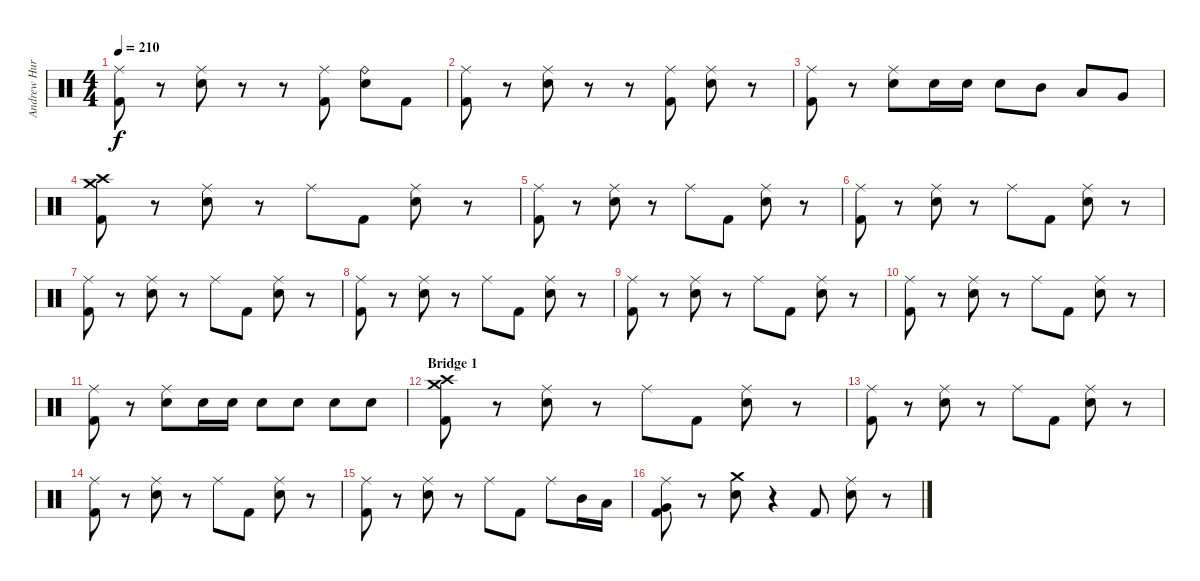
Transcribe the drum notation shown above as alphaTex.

\track ("Andrew Hurley (Drums)" "Andrew Hur") {instrument percussion}
\staff {score}
\articulation defaults
\ts (4 4)
\tempo 210
\clef neutral
\ks c
("Ride (middle)" "Kick (hit) 2").8{dy f} r.8 ("Ride (middle)" "Electric Snare (hit)").8 r.8 r.8 ("Ride (middle)" "Kick (hit) 2").8 ("Ride (bell)" "Electric Snare (hit)").8 "Kick (hit) 2".8 |
("Ride (middle)" "Kick (hit) 2").8 r.8 ("Ride (middle)" "Electric Snare (hit)").8 r.8 r.8 ("Ride (middle)" "Kick (hit) 2").8 ("Ride (middle)" "Electric Snare (hit)").8 r.8 |
("Ride (middle)" "Kick (hit) 2").8 r.8 ("Ride (middle)" "Electric Snare (hit)").8 "Electric Snare (hit)".16 "Electric Snare (hit)".16 "Electric Snare (hit)".8 "Mid Tom (hit)".8 "Low Tom (hit)".8 "Very Low Tom (hit)".8 |
("Crash medium (hit)" "Crash high (hit)" "Kick (hit) 2").8 r.8 ("Ride (middle)" "Electric Snare (hit)").8 r.8 "Ride (middle)".8 "Kick (hit) 2".8 ("Ride (middle)" "Electric Snare (hit)").8 r.8 |
("Ride (middle)" "Kick (hit) 2").8 r.8 ("Ride (middle)" "Electric Snare (hit)").8 r.8 "Ride (middle)".8 "Kick (hit) 2".8 ("Ride (middle)" "Electric Snare (hit)").8 r.8 |
("Ride (middle)" "Kick (hit) 2").8 r.8 ("Ride (middle)" "Electric Snare (hit)").8 r.8 "Ride (middle)".8 "Kick (hit) 2".8 ("Ride (middle)" "Electric Snare (hit)").8 r.8 |
("Ride (middle)" "Kick (hit) 2").8 r.8 ("Ride (middle)" "Electric Snare (hit)").8 r.8 "Ride (middle)".8 "Kick (hit) 2".8 ("Ride (middle)" "Electric Snare (hit)").8 r.8 |
("Ride (middle)" "Kick (hit) 2").8 r.8 ("Ride (middle)" "Electric Snare (hit)").8 r.8 "Ride (middle)".8 "Kick (hit) 2".8 ("Ride (middle)" "Electric Snare (hit)").8 r.8 |
("Ride (middle)" "Kick (hit) 2").8 r.8 ("Ride (middle)" "Electric Snare (hit)").8 r.8 "Ride (middle)".8 "Kick (hit) 2".8 ("Ride (middle)" "Electric Snare (hit)").8 r.8 |
("Ride (middle)" "Kick (hit) 2").8 r.8 ("Ride (middle)" "Electric Snare (hit)").8 r.8 "Ride (middle)".8 "Kick (hit) 2".8 ("Ride (middle)" "Electric Snare (hit)").8 r.8 |
("Ride (middle)" "Kick (hit) 2").8 r.8 ("Ride (middle)" "Electric Snare (hit)").8 "Electric Snare (hit)".16 "Electric Snare (hit)".16 "Electric Snare (hit)".8 "Electric Snare (hit)".8 "Electric Snare (hit)".8 "Electric Snare (hit)".8 |
\section ("" "Bridge 1")
("Crash medium (hit)" "Crash high (hit)" "Kick (hit) 2").8 r.8 ("Ride (middle)" "Electric Snare (hit)").8 r.8 "Ride (middle)".8 "Kick (hit) 2".8 ("Ride (middle)" "Electric Snare (hit)").8 r.8 |
("Ride (middle)" "Kick (hit) 2").8 r.8 ("Ride (middle)" "Electric Snare (hit)").8 r.8 "Ride (middle)".8 "Kick (hit) 2".8 ("Ride (middle)" "Electric Snare (hit)").8 r.8 |
("Ride (middle)" "Kick (hit) 2").8 r.8 ("Ride (middle)" "Electric Snare (hit)").8 r.8 "Ride (middle)".8 "Kick (hit) 2".8 ("Ride (middle)" "Electric Snare (hit)").8 r.8 |
("Ride (middle)" "Kick (hit) 2").8 r.8 ("Ride (middle)" "Electric Snare (hit)").8 r.8 "Ride (middle)".8 "Kick (hit) 2".8 "Ride (middle)".8 "Mid Tom (hit)".16 "Low Tom (hit)".16 |
("Ride (middle)" "Very Low Tom (hit)" "Kick (hit) 2").8 r.8 ("Crash medium (hit)" "Electric Snare (hit)").8 r.4 "Kick (hit) 2".8 ("Ride (middle)" "Electric Snare (hit)").8 r.8
